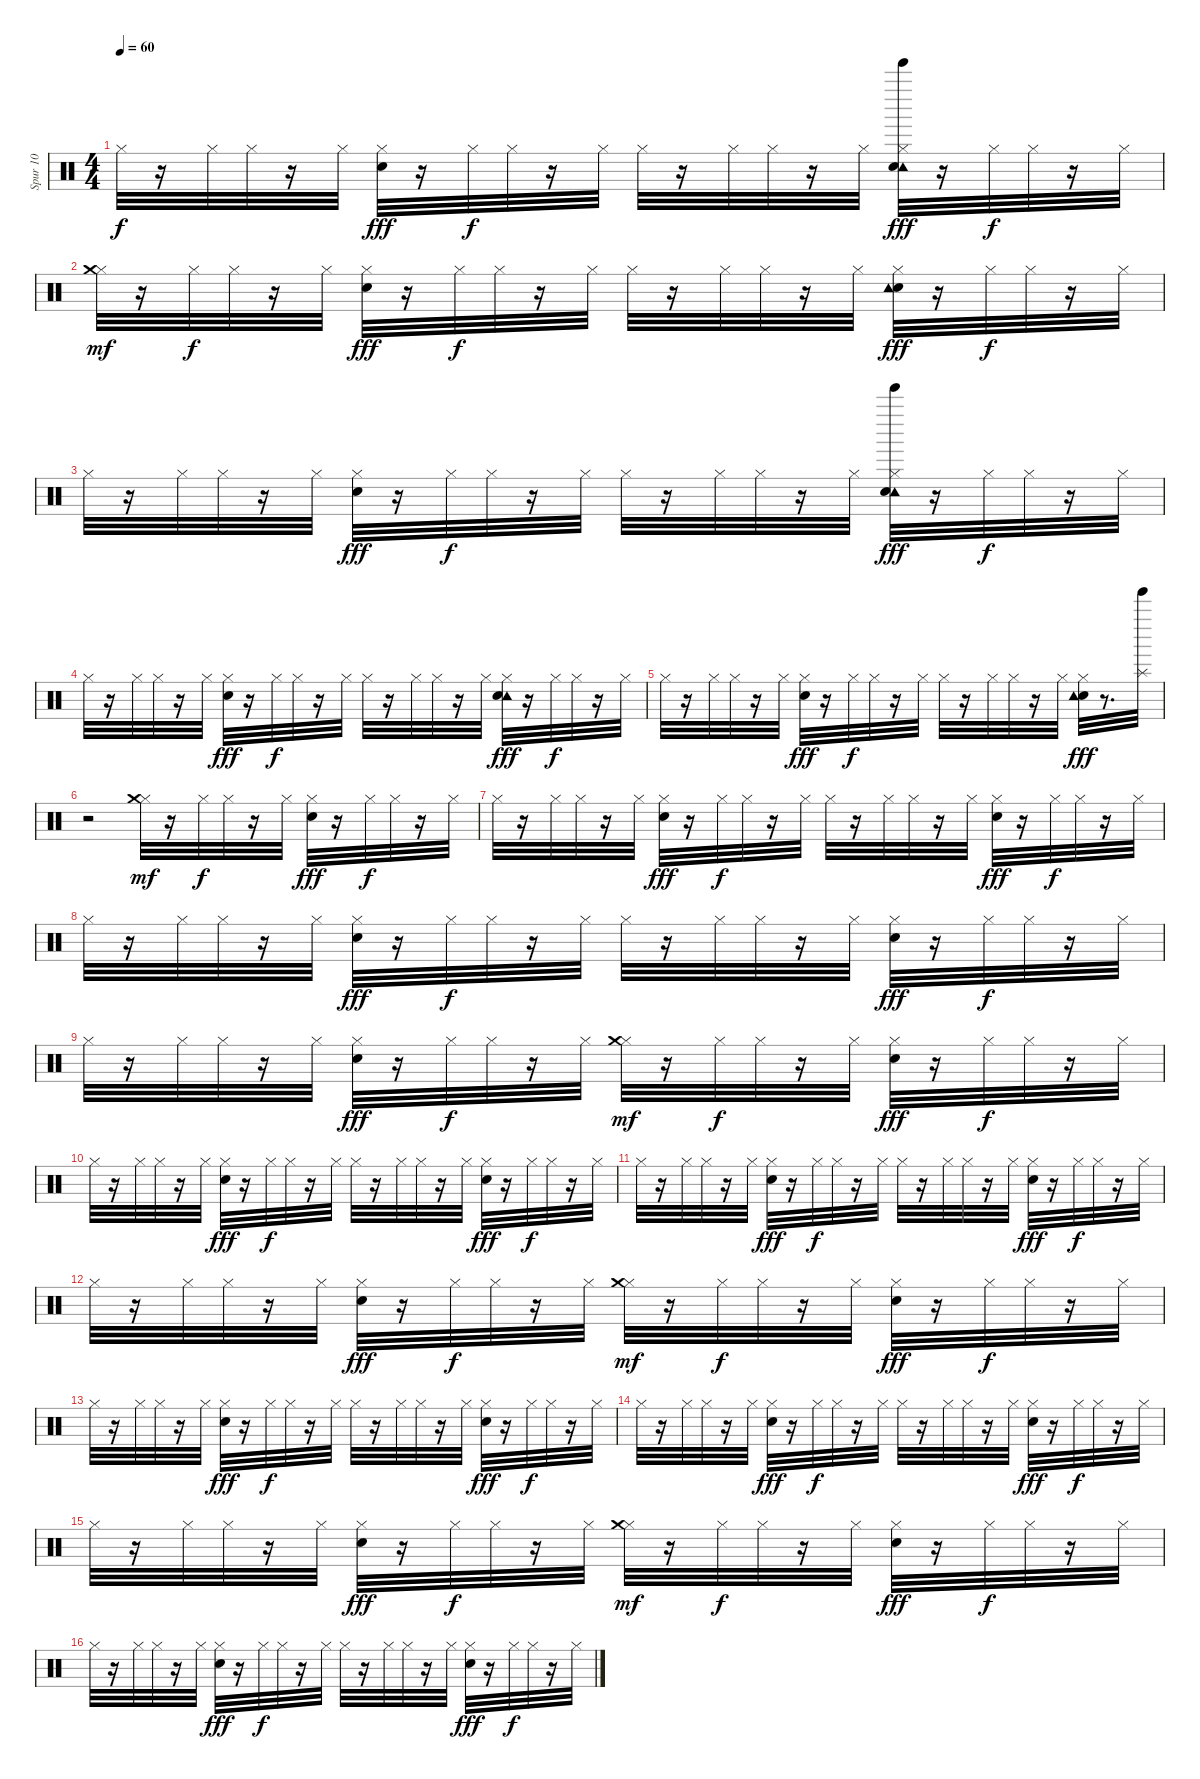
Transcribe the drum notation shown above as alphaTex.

\track ("Spur 10" "Spur 10") {instrument percussion}
\staff {score}
\articulation defaults
\ts (4 4)
\tempo 60
\clef neutral
\ks c "Hi-Hat (closed)".32{dy f}
r.16 "Hi-Hat (closed)".32 "Hi-Hat (closed)".32 r.16 "Hi-Hat (closed)".32 ("Electric Snare (hit)" "Hi-Hat (closed)").32{dy fff} r.16 "Hi-Hat (closed)".32{dy f} "Hi-Hat (closed)".32 r.16 "Hi-Hat (closed)".32 "Hi-Hat (closed)".32 r.16 "Hi-Hat (closed)".32 "Hi-Hat (closed)".32 r.16 "Hi-Hat (closed)".32 ("Hi-Hat (closed)" "Tambourine (hit)" "Electric Snare (hit)" "Tinkle Bell (hit)").32{dy fff} r.16 "Hi-Hat (closed)".32{dy f} "Hi-Hat (closed)".32 r.16 "Hi-Hat (closed)".32 |
("Hi-Hat (closed)" "Crash medium (hit)").32{dy mf} r.16 "Hi-Hat (closed)".32{dy f} "Hi-Hat (closed)".32 r.16 "Hi-Hat (closed)".32 ("Electric Snare (hit)" "Hi-Hat (closed)").32{dy fff} r.16 "Hi-Hat (closed)".32{dy f} "Hi-Hat (closed)".32 r.16 "Hi-Hat (closed)".32 "Hi-Hat (closed)".32 r.16 "Hi-Hat (closed)".32 "Hi-Hat (closed)".32 r.16 "Hi-Hat (closed)".32 ("Electric Snare (hit)" "Hi-Hat (closed)" "Tambourine (hit)").32{dy fff} r.16 "Hi-Hat (closed)".32{dy f} "Hi-Hat (closed)".32 r.16 "Hi-Hat (closed)".32 |
"Hi-Hat (closed)".32 r.16 "Hi-Hat (closed)".32 "Hi-Hat (closed)".32 r.16 "Hi-Hat (closed)".32 ("Electric Snare (hit)" "Hi-Hat (closed)").32{dy fff} r.16 "Hi-Hat (closed)".32{dy f} "Hi-Hat (closed)".32 r.16 "Hi-Hat (closed)".32 "Hi-Hat (closed)".32 r.16 "Hi-Hat (closed)".32 "Hi-Hat (closed)".32 r.16 "Hi-Hat (closed)".32 ("Tinkle Bell (hit)" "Tambourine (hit)" "Hi-Hat (closed)" "Electric Snare (hit)").32{dy fff} r.16 "Hi-Hat (closed)".32{dy f} "Hi-Hat (closed)".32 r.16 "Hi-Hat (closed)".32 |
"Hi-Hat (closed)".32 r.16 "Hi-Hat (closed)".32 "Hi-Hat (closed)".32 r.16 "Hi-Hat (closed)".32 ("Electric Snare (hit)" "Hi-Hat (closed)").32{dy fff} r.16 "Hi-Hat (closed)".32{dy f} "Hi-Hat (closed)".32 r.16 "Hi-Hat (closed)".32 "Hi-Hat (closed)".32 r.16 "Hi-Hat (closed)".32 "Hi-Hat (closed)".32 r.16 "Hi-Hat (closed)".32 ("Hi-Hat (closed)" "Tambourine (hit)" "Electric Snare (hit)").32{dy fff} r.16 "Hi-Hat (closed)".32{dy f} "Hi-Hat (closed)".32 r.16 "Hi-Hat (closed)".32 |
"Hi-Hat (closed)".32 r.16 "Hi-Hat (closed)".32 "Hi-Hat (closed)".32 r.16 "Hi-Hat (closed)".32 ("Electric Snare (hit)" "Hi-Hat (closed)").32{dy fff} r.16 "Hi-Hat (closed)".32{dy f} "Hi-Hat (closed)".32 r.16 "Hi-Hat (closed)".32 "Hi-Hat (closed)".32 r.16 "Hi-Hat (closed)".32 "Hi-Hat (closed)".32 r.16 "Hi-Hat (closed)".32 ("Electric Snare (hit)" "Hi-Hat (closed)" "Tambourine (hit)").32{dy fff} r.8{d} ("Splash (hit)" "Tinkle Bell (hit)").32 |
r.2 ("Hi-Hat (closed)" "Crash medium (hit)").32{dy mf} r.16 "Hi-Hat (closed)".32{dy f} "Hi-Hat (closed)".32 r.16 "Hi-Hat (closed)".32 ("Electric Snare (hit)" "Hi-Hat (closed)").32{dy fff} r.16 "Hi-Hat (closed)".32{dy f} "Hi-Hat (closed)".32 r.16 "Hi-Hat (closed)".32 |
"Hi-Hat (closed)".32 r.16 "Hi-Hat (closed)".32 "Hi-Hat (closed)".32 r.16 "Hi-Hat (closed)".32 ("Electric Snare (hit)" "Hi-Hat (closed)").32{dy fff} r.16 "Hi-Hat (closed)".32{dy f} "Hi-Hat (closed)".32 r.16 "Hi-Hat (closed)".32 "Hi-Hat (closed)".32 r.16 "Hi-Hat (closed)".32 "Hi-Hat (closed)".32 r.16 "Hi-Hat (closed)".32 ("Electric Snare (hit)" "Hi-Hat (closed)").32{dy fff} r.16 "Hi-Hat (closed)".32{dy f} "Hi-Hat (closed)".32 r.16 "Hi-Hat (closed)".32 |
"Hi-Hat (closed)".32 r.16 "Hi-Hat (closed)".32 "Hi-Hat (closed)".32 r.16 "Hi-Hat (closed)".32 ("Electric Snare (hit)" "Hi-Hat (closed)").32{dy fff} r.16 "Hi-Hat (closed)".32{dy f} "Hi-Hat (closed)".32 r.16 "Hi-Hat (closed)".32 "Hi-Hat (closed)".32 r.16 "Hi-Hat (closed)".32 "Hi-Hat (closed)".32 r.16 "Hi-Hat (closed)".32 ("Electric Snare (hit)" "Hi-Hat (closed)").32{dy fff} r.16 "Hi-Hat (closed)".32{dy f} "Hi-Hat (closed)".32 r.16 "Hi-Hat (closed)".32 |
"Hi-Hat (closed)".32 r.16 "Hi-Hat (closed)".32 "Hi-Hat (closed)".32 r.16 "Hi-Hat (closed)".32 ("Electric Snare (hit)" "Hi-Hat (closed)").32{dy fff} r.16 "Hi-Hat (closed)".32{dy f} "Hi-Hat (closed)".32 r.16 "Hi-Hat (closed)".32 ("Hi-Hat (closed)" "Crash medium (hit)").32{dy mf} r.16 "Hi-Hat (closed)".32{dy f} "Hi-Hat (closed)".32 r.16 "Hi-Hat (closed)".32 ("Electric Snare (hit)" "Hi-Hat (closed)").32{dy fff} r.16 "Hi-Hat (closed)".32{dy f} "Hi-Hat (closed)".32 r.16 "Hi-Hat (closed)".32 |
"Hi-Hat (closed)".32 r.16 "Hi-Hat (closed)".32 "Hi-Hat (closed)".32 r.16 "Hi-Hat (closed)".32 ("Electric Snare (hit)" "Hi-Hat (closed)").32{dy fff} r.16 "Hi-Hat (closed)".32{dy f} "Hi-Hat (closed)".32 r.16 "Hi-Hat (closed)".32 "Hi-Hat (closed)".32 r.16 "Hi-Hat (closed)".32 "Hi-Hat (closed)".32 r.16 "Hi-Hat (closed)".32 ("Electric Snare (hit)" "Hi-Hat (closed)").32{dy fff} r.16 "Hi-Hat (closed)".32{dy f} "Hi-Hat (closed)".32 r.16 "Hi-Hat (closed)".32 |
"Hi-Hat (closed)".32 r.16 "Hi-Hat (closed)".32 "Hi-Hat (closed)".32 r.16 "Hi-Hat (closed)".32 ("Electric Snare (hit)" "Hi-Hat (closed)").32{dy fff} r.16 "Hi-Hat (closed)".32{dy f} "Hi-Hat (closed)".32 r.16 "Hi-Hat (closed)".32 "Hi-Hat (closed)".32 r.16 "Hi-Hat (closed)".32 "Hi-Hat (closed)".32 r.16 "Hi-Hat (closed)".32 ("Electric Snare (hit)" "Hi-Hat (closed)").32{dy fff} r.16 "Hi-Hat (closed)".32{dy f} "Hi-Hat (closed)".32 r.16 "Hi-Hat (closed)".32 |
"Hi-Hat (closed)".32 r.16 "Hi-Hat (closed)".32 "Hi-Hat (closed)".32 r.16 "Hi-Hat (closed)".32 ("Electric Snare (hit)" "Hi-Hat (closed)").32{dy fff} r.16 "Hi-Hat (closed)".32{dy f} "Hi-Hat (closed)".32 r.16 "Hi-Hat (closed)".32 ("Hi-Hat (closed)" "Crash medium (hit)").32{dy mf} r.16 "Hi-Hat (closed)".32{dy f} "Hi-Hat (closed)".32 r.16 "Hi-Hat (closed)".32 ("Electric Snare (hit)" "Hi-Hat (closed)").32{dy fff} r.16 "Hi-Hat (closed)".32{dy f} "Hi-Hat (closed)".32 r.16 "Hi-Hat (closed)".32 |
"Hi-Hat (closed)".32 r.16 "Hi-Hat (closed)".32 "Hi-Hat (closed)".32 r.16 "Hi-Hat (closed)".32 ("Electric Snare (hit)" "Hi-Hat (closed)").32{dy fff} r.16 "Hi-Hat (closed)".32{dy f} "Hi-Hat (closed)".32 r.16 "Hi-Hat (closed)".32 "Hi-Hat (closed)".32 r.16 "Hi-Hat (closed)".32 "Hi-Hat (closed)".32 r.16 "Hi-Hat (closed)".32 ("Electric Snare (hit)" "Hi-Hat (closed)").32{dy fff} r.16 "Hi-Hat (closed)".32{dy f} "Hi-Hat (closed)".32 r.16 "Hi-Hat (closed)".32 |
"Hi-Hat (closed)".32 r.16 "Hi-Hat (closed)".32 "Hi-Hat (closed)".32 r.16 "Hi-Hat (closed)".32 ("Electric Snare (hit)" "Hi-Hat (closed)").32{dy fff} r.16 "Hi-Hat (closed)".32{dy f} "Hi-Hat (closed)".32 r.16 "Hi-Hat (closed)".32 "Hi-Hat (closed)".32 r.16 "Hi-Hat (closed)".32 "Hi-Hat (closed)".32 r.16 "Hi-Hat (closed)".32 ("Electric Snare (hit)" "Hi-Hat (closed)").32{dy fff} r.16 "Hi-Hat (closed)".32{dy f} "Hi-Hat (closed)".32 r.16 "Hi-Hat (closed)".32 |
"Hi-Hat (closed)".32 r.16 "Hi-Hat (closed)".32 "Hi-Hat (closed)".32 r.16 "Hi-Hat (closed)".32 ("Electric Snare (hit)" "Hi-Hat (closed)").32{dy fff} r.16 "Hi-Hat (closed)".32{dy f} "Hi-Hat (closed)".32 r.16 "Hi-Hat (closed)".32 ("Hi-Hat (closed)" "Crash medium (hit)").32{dy mf} r.16 "Hi-Hat (closed)".32{dy f} "Hi-Hat (closed)".32 r.16 "Hi-Hat (closed)".32 ("Electric Snare (hit)" "Hi-Hat (closed)").32{dy fff} r.16 "Hi-Hat (closed)".32{dy f} "Hi-Hat (closed)".32 r.16 "Hi-Hat (closed)".32 |
"Hi-Hat (closed)".32 r.16 "Hi-Hat (closed)".32 "Hi-Hat (closed)".32 r.16 "Hi-Hat (closed)".32 ("Electric Snare (hit)" "Hi-Hat (closed)").32{dy fff} r.16 "Hi-Hat (closed)".32{dy f} "Hi-Hat (closed)".32 r.16 "Hi-Hat (closed)".32 "Hi-Hat (closed)".32 r.16 "Hi-Hat (closed)".32 "Hi-Hat (closed)".32 r.16 "Hi-Hat (closed)".32 ("Electric Snare (hit)" "Hi-Hat (closed)").32{dy fff} r.16 "Hi-Hat (closed)".32{dy f} "Hi-Hat (closed)".32 r.16 "Hi-Hat (closed)".32
